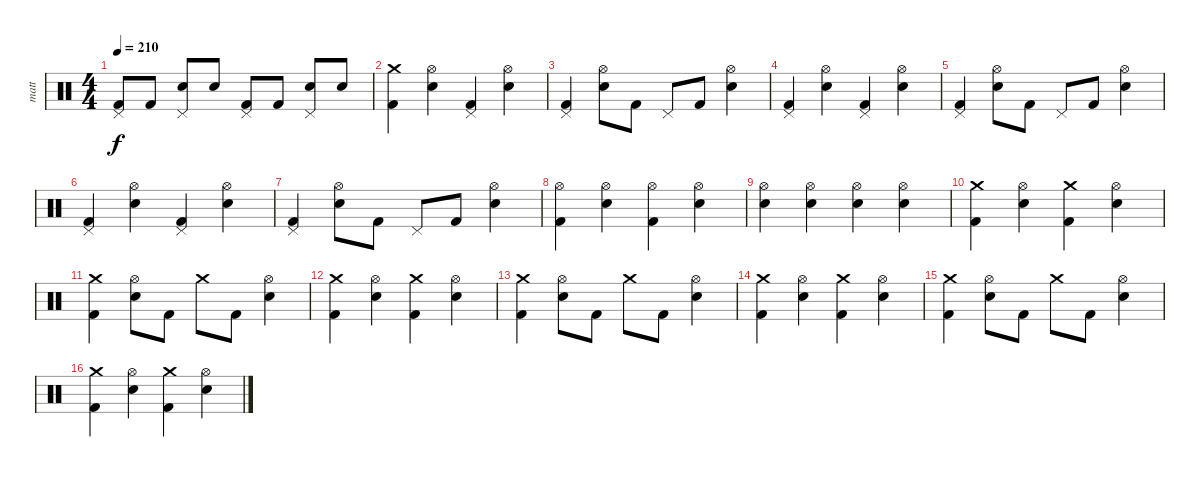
\track ("matt" "matt") {instrument percussion}
\staff {score}
\articulation defaults
\ts (4 4)
\tempo 210
\clef neutral
\ks c
("Pedal Hi-Hat (hit)" "Kick (hit) 2").8{dy f} "Kick (hit) 2".8 ("Pedal Hi-Hat (hit)" "Electric Snare (hit)").8 "Electric Snare (hit)".8 ("Pedal Hi-Hat (hit)" "Kick (hit) 2").8 "Kick (hit) 2".8 ("Pedal Hi-Hat (hit)" "Electric Snare (hit)").8 "Electric Snare (hit)".8 |
("Crash medium (hit)" "Kick (hit) 2").4 ("Hi-Hat (open)" "Electric Snare (hit)").4 ("Pedal Hi-Hat (hit)" "Kick (hit) 2").4 ("Hi-Hat (open)" "Electric Snare (hit)").4 |
("Pedal Hi-Hat (hit)" "Kick (hit) 2").4 ("Hi-Hat (open)" "Electric Snare (hit)").8 "Kick (hit) 2".8 "Pedal Hi-Hat (hit)".8 "Kick (hit) 2".8 ("Hi-Hat (open)" "Electric Snare (hit)").4 |
("Pedal Hi-Hat (hit)" "Kick (hit) 2").4 ("Hi-Hat (open)" "Electric Snare (hit)").4 ("Pedal Hi-Hat (hit)" "Kick (hit) 2").4 ("Hi-Hat (open)" "Electric Snare (hit)").4 |
("Pedal Hi-Hat (hit)" "Kick (hit) 2").4 ("Hi-Hat (open)" "Electric Snare (hit)").8 "Kick (hit) 2".8 "Pedal Hi-Hat (hit)".8 "Kick (hit) 2".8 ("Hi-Hat (open)" "Electric Snare (hit)").4 |
("Pedal Hi-Hat (hit)" "Kick (hit) 2").4 ("Hi-Hat (open)" "Electric Snare (hit)").4 ("Pedal Hi-Hat (hit)" "Kick (hit) 2").4 ("Hi-Hat (open)" "Electric Snare (hit)").4 |
("Pedal Hi-Hat (hit)" "Kick (hit) 2").4 ("Hi-Hat (open)" "Electric Snare (hit)").8 "Kick (hit) 2".8 "Pedal Hi-Hat (hit)".8 "Kick (hit) 2".8 ("Hi-Hat (open)" "Electric Snare (hit)").4 |
("Hi-Hat (open)" "Kick (hit) 2").4 ("Hi-Hat (open)" "Electric Snare (hit)").4 ("Hi-Hat (open)" "Kick (hit) 2").4 ("Hi-Hat (open)" "Electric Snare (hit)").4 |
("Hi-Hat (open)" "Electric Snare (hit)").4 ("Hi-Hat (open)" "Electric Snare (hit)").4 ("Hi-Hat (open)" "Electric Snare (hit)").4 ("Hi-Hat (open)" "Electric Snare (hit)").4 |
("Crash medium (hit)" "Kick (hit) 2").4 ("Hi-Hat (open)" "Electric Snare (hit)").4 ("Crash medium (hit)" "Kick (hit) 2").4 ("Hi-Hat (open)" "Electric Snare (hit)").4 |
("Crash medium (hit)" "Kick (hit) 2").4 ("Hi-Hat (open)" "Electric Snare (hit)").8 "Kick (hit) 2".8 "Crash medium (hit)".8 "Kick (hit) 2".8 ("Hi-Hat (open)" "Electric Snare (hit)").4 |
("Crash medium (hit)" "Kick (hit) 2").4 ("Hi-Hat (open)" "Electric Snare (hit)").4 ("Crash medium (hit)" "Kick (hit) 2").4 ("Hi-Hat (open)" "Electric Snare (hit)").4 |
("Crash medium (hit)" "Kick (hit) 2").4 ("Hi-Hat (open)" "Electric Snare (hit)").8 "Kick (hit) 2".8 "Crash medium (hit)".8 "Kick (hit) 2".8 ("Hi-Hat (open)" "Electric Snare (hit)").4 |
("Crash medium (hit)" "Kick (hit) 2").4 ("Hi-Hat (open)" "Electric Snare (hit)").4 ("Crash medium (hit)" "Kick (hit) 2").4 ("Hi-Hat (open)" "Electric Snare (hit)").4 |
("Crash medium (hit)" "Kick (hit) 2").4 ("Hi-Hat (open)" "Electric Snare (hit)").8 "Kick (hit) 2".8 "Crash medium (hit)".8 "Kick (hit) 2".8 ("Hi-Hat (open)" "Electric Snare (hit)").4 |
("Crash medium (hit)" "Kick (hit) 2").4 ("Hi-Hat (open)" "Electric Snare (hit)").4 ("Crash medium (hit)" "Kick (hit) 2").4 ("Hi-Hat (open)" "Electric Snare (hit)").4
